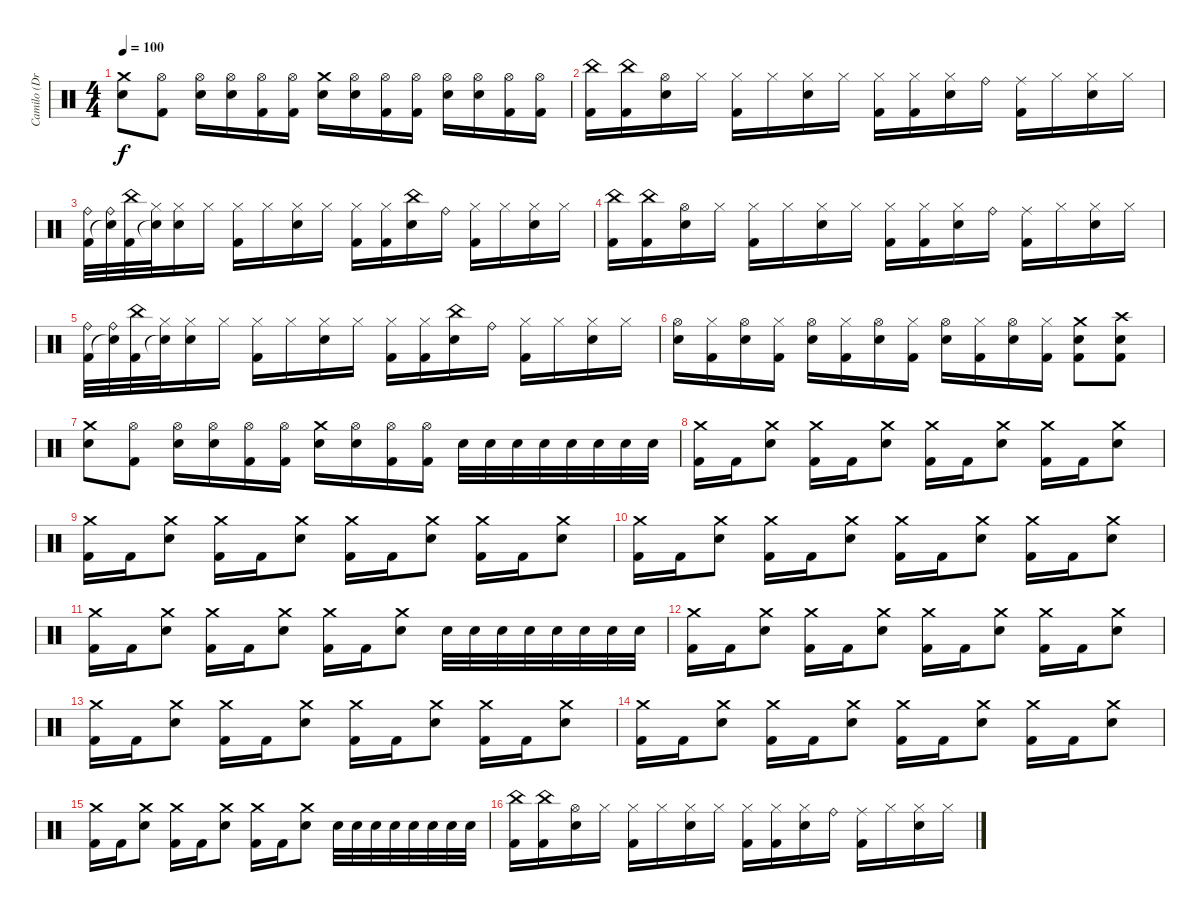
\track ("Camilo (Drums)" "Camilo (Dr") {instrument percussion}
\staff {score}
\articulation defaults
\ts (4 4)
\tempo 100
\clef neutral
\ks c
("Crash medium (hit)" "Electric Snare (hit)").8{dy f} ("Hi-Hat (open)" "Kick (hit) 2").8 ("Hi-Hat (open)" "Electric Snare (hit)").16 ("Hi-Hat (open)" "Electric Snare (hit)").16 ("Hi-Hat (open)" "Kick (hit) 2").16 ("Hi-Hat (open)" "Kick (hit) 2").16 ("Crash medium (hit)" "Electric Snare (hit)").16 ("Hi-Hat (open)" "Electric Snare (hit)").16 ("Hi-Hat (open)" "Kick (hit) 2").16 ("Hi-Hat (open)" "Kick (hit) 2").16 ("Hi-Hat (open)" "Electric Snare (hit)").16 ("Hi-Hat (open)" "Electric Snare (hit)").16 ("Hi-Hat (open)" "Kick (hit) 2").16 ("Hi-Hat (open)" "Kick (hit) 2").16 |
("China (hit)" "Kick (hit) 2").16 ("China (hit)" "Kick (hit) 2").16 ("Hi-Hat (open)" "Electric Snare (hit)").16 "Hi-Hat (closed)".16 ("Hi-Hat (closed)" "Kick (hit) 2").16 "Hi-Hat (closed)".16 ("Hi-Hat (closed)" "Electric Snare (hit)").16 "Hi-Hat (closed)".16 ("Hi-Hat (closed)" "Kick (hit) 2").16 ("Hi-Hat (closed)" "Kick (hit) 2").16 ("Hi-Hat (closed)" "Electric Snare (hit)").16 "Ride (bell)".16 ("Ride (middle)" "Kick (hit) 2").16 "Hi-Hat (closed)".16 ("Hi-Hat (closed)" "Electric Snare (hit)").16 "Hi-Hat (closed)".16 |
("Ride (bell)" "Kick (hit) 2").32 ("Ride (bell)" "Snare (hit)"{t}).32 ("China (hit)" "Kick (hit) 2").32 ("Hi-Hat (closed)" "Snare (hit)"{t}).32 ("Hi-Hat (closed)" "Electric Snare (hit)").16 "Hi-Hat (closed)".16 ("Hi-Hat (closed)" "Kick (hit) 2").16 "Hi-Hat (closed)".16 ("Hi-Hat (closed)" "Electric Snare (hit)").16 "Hi-Hat (closed)".16 ("Hi-Hat (closed)" "Kick (hit) 2").16 ("Hi-Hat (closed)" "Kick (hit) 2").16 ("China (hit)" "Electric Snare (hit)").16 "Ride (bell)".16 ("Hi-Hat (closed)" "Kick (hit) 2").16 "Hi-Hat (closed)".16 ("Hi-Hat (closed)" "Electric Snare (hit)").16 "Hi-Hat (closed)".16 |
("China (hit)" "Kick (hit) 2").16 ("China (hit)" "Kick (hit) 2").16 ("Hi-Hat (open)" "Electric Snare (hit)").16 "Hi-Hat (closed)".16 ("Hi-Hat (closed)" "Kick (hit) 2").16 "Hi-Hat (closed)".16 ("Hi-Hat (closed)" "Electric Snare (hit)").16 "Hi-Hat (closed)".16 ("Hi-Hat (closed)" "Kick (hit) 2").16 ("Hi-Hat (closed)" "Kick (hit) 2").16 ("Hi-Hat (closed)" "Electric Snare (hit)").16 "Ride (bell)".16 ("Ride (middle)" "Kick (hit) 2").16 "Hi-Hat (closed)".16 ("Hi-Hat (closed)" "Electric Snare (hit)").16 "Hi-Hat (closed)".16 |
("Ride (bell)" "Kick (hit) 2").32 ("Ride (bell)" "Snare (hit)"{t}).32 ("China (hit)" "Kick (hit) 2").32 ("Hi-Hat (closed)" "Snare (hit)"{t}).32 ("Hi-Hat (closed)" "Electric Snare (hit)").16 "Hi-Hat (closed)".16 ("Hi-Hat (closed)" "Kick (hit) 2").16 "Hi-Hat (closed)".16 ("Hi-Hat (closed)" "Electric Snare (hit)").16 "Hi-Hat (closed)".16 ("Hi-Hat (closed)" "Kick (hit) 2").16 ("Hi-Hat (closed)" "Kick (hit) 2").16 ("China (hit)" "Electric Snare (hit)").16 "Ride (bell)".16 ("Hi-Hat (closed)" "Kick (hit) 2").16 "Hi-Hat (closed)".16 ("Hi-Hat (closed)" "Electric Snare (hit)").16 "Hi-Hat (closed)".16 |
("Hi-Hat (open)" "Electric Snare (hit)").16 ("Hi-Hat (closed)" "Kick (hit) 2").16 ("Hi-Hat (open)" "Electric Snare (hit)").16 ("Hi-Hat (closed)" "Kick (hit) 2").16 ("Hi-Hat (open)" "Electric Snare (hit)").16 ("Hi-Hat (closed)" "Kick (hit) 2").16 ("Hi-Hat (open)" "Electric Snare (hit)").16 ("Hi-Hat (closed)" "Kick (hit) 2").16 ("Hi-Hat (open)" "Electric Snare (hit)").16 ("Hi-Hat (closed)" "Kick (hit) 2").16 ("Hi-Hat (open)" "Electric Snare (hit)").16 ("Hi-Hat (closed)" "Kick (hit) 2").16 ("Crash medium (hit)" "Electric Snare (hit)" "Kick (hit) 2").8 ("Crash high (hit)" "Electric Snare (hit)" "Kick (hit) 2").8 |
("Crash medium (hit)" "Electric Snare (hit)").8 ("Hi-Hat (open)" "Kick (hit) 2").8 ("Hi-Hat (open)" "Electric Snare (hit)").16 ("Hi-Hat (open)" "Electric Snare (hit)").16 ("Hi-Hat (open)" "Kick (hit) 2").16 ("Hi-Hat (open)" "Kick (hit) 2").16 ("Crash medium (hit)" "Electric Snare (hit)").16 ("Hi-Hat (open)" "Electric Snare (hit)").16 ("Hi-Hat (open)" "Kick (hit) 2").16 ("Hi-Hat (open)" "Kick (hit) 2").16 "Electric Snare (hit)".32 "Electric Snare (hit)".32 "Electric Snare (hit)".32 "Electric Snare (hit)".32 "Electric Snare (hit)".32 "Electric Snare (hit)".32 "Electric Snare (hit)".32 "Electric Snare (hit)".32 |
("Crash medium (hit)" "Kick (hit) 2").16 "Kick (hit) 2".16 ("Crash medium (hit)" "Electric Snare (hit)").8 ("Crash medium (hit)" "Kick (hit) 2").16 "Kick (hit) 2".16 ("Crash medium (hit)" "Electric Snare (hit)").8 ("Crash medium (hit)" "Kick (hit) 2").16 "Kick (hit) 2".16 ("Crash medium (hit)" "Electric Snare (hit)").8 ("Crash medium (hit)" "Kick (hit) 2").16 "Kick (hit) 2".16 ("Crash medium (hit)" "Electric Snare (hit)").8 |
("Crash medium (hit)" "Kick (hit) 2").16 "Kick (hit) 2".16 ("Crash medium (hit)" "Electric Snare (hit)").8 ("Crash medium (hit)" "Kick (hit) 2").16 "Kick (hit) 2".16 ("Crash medium (hit)" "Electric Snare (hit)").8 ("Crash medium (hit)" "Kick (hit) 2").16 "Kick (hit) 2".16 ("Crash medium (hit)" "Electric Snare (hit)").8 ("Crash medium (hit)" "Kick (hit) 2").16 "Kick (hit) 2".16 ("Crash medium (hit)" "Electric Snare (hit)").8 |
("Crash medium (hit)" "Kick (hit) 2").16 "Kick (hit) 2".16 ("Crash medium (hit)" "Electric Snare (hit)").8 ("Crash medium (hit)" "Kick (hit) 2").16 "Kick (hit) 2".16 ("Crash medium (hit)" "Electric Snare (hit)").8 ("Crash medium (hit)" "Kick (hit) 2").16 "Kick (hit) 2".16 ("Crash medium (hit)" "Electric Snare (hit)").8 ("Crash medium (hit)" "Kick (hit) 2").16 "Kick (hit) 2".16 ("Crash medium (hit)" "Electric Snare (hit)").8 |
("Crash medium (hit)" "Kick (hit) 2").16 "Kick (hit) 2".16 ("Crash medium (hit)" "Electric Snare (hit)").8 ("Crash medium (hit)" "Kick (hit) 2").16 "Kick (hit) 2".16 ("Crash medium (hit)" "Electric Snare (hit)").8 ("Crash medium (hit)" "Kick (hit) 2").16 "Kick (hit) 2".16 ("Crash medium (hit)" "Electric Snare (hit)").8 "Electric Snare (hit)".32 "Electric Snare (hit)".32 "Electric Snare (hit)".32 "Electric Snare (hit)".32 "Electric Snare (hit)".32 "Electric Snare (hit)".32 "Electric Snare (hit)".32 "Electric Snare (hit)".32 |
("Crash medium (hit)" "Kick (hit) 2").16 "Kick (hit) 2".16 ("Crash medium (hit)" "Electric Snare (hit)").8 ("Crash medium (hit)" "Kick (hit) 2").16 "Kick (hit) 2".16 ("Crash medium (hit)" "Electric Snare (hit)").8 ("Crash medium (hit)" "Kick (hit) 2").16 "Kick (hit) 2".16 ("Crash medium (hit)" "Electric Snare (hit)").8 ("Crash medium (hit)" "Kick (hit) 2").16 "Kick (hit) 2".16 ("Crash medium (hit)" "Electric Snare (hit)").8 |
("Crash medium (hit)" "Kick (hit) 2").16 "Kick (hit) 2".16 ("Crash medium (hit)" "Electric Snare (hit)").8 ("Crash medium (hit)" "Kick (hit) 2").16 "Kick (hit) 2".16 ("Crash medium (hit)" "Electric Snare (hit)").8 ("Crash medium (hit)" "Kick (hit) 2").16 "Kick (hit) 2".16 ("Crash medium (hit)" "Electric Snare (hit)").8 ("Crash medium (hit)" "Kick (hit) 2").16 "Kick (hit) 2".16 ("Crash medium (hit)" "Electric Snare (hit)").8 |
("Crash medium (hit)" "Kick (hit) 2").16 "Kick (hit) 2".16 ("Crash medium (hit)" "Electric Snare (hit)").8 ("Crash medium (hit)" "Kick (hit) 2").16 "Kick (hit) 2".16 ("Crash medium (hit)" "Electric Snare (hit)").8 ("Crash medium (hit)" "Kick (hit) 2").16 "Kick (hit) 2".16 ("Crash medium (hit)" "Electric Snare (hit)").8 ("Crash medium (hit)" "Kick (hit) 2").16 "Kick (hit) 2".16 ("Crash medium (hit)" "Electric Snare (hit)").8 |
("Crash medium (hit)" "Kick (hit) 2").16 "Kick (hit) 2".16 ("Crash medium (hit)" "Electric Snare (hit)").8 ("Crash medium (hit)" "Kick (hit) 2").16 "Kick (hit) 2".16 ("Crash medium (hit)" "Electric Snare (hit)").8 ("Crash medium (hit)" "Kick (hit) 2").16 "Kick (hit) 2".16 ("Crash medium (hit)" "Electric Snare (hit)").8 "Electric Snare (hit)".32 "Electric Snare (hit)".32 "Electric Snare (hit)".32 "Electric Snare (hit)".32 "Electric Snare (hit)".32 "Electric Snare (hit)".32 "Electric Snare (hit)".32 "Electric Snare (hit)".32 |
("China (hit)" "Kick (hit) 2").16 ("China (hit)" "Kick (hit) 2").16 ("Hi-Hat (open)" "Electric Snare (hit)").16 "Hi-Hat (closed)".16 ("Hi-Hat (closed)" "Kick (hit) 2").16 "Hi-Hat (closed)".16 ("Hi-Hat (closed)" "Electric Snare (hit)").16 "Hi-Hat (closed)".16 ("Hi-Hat (closed)" "Kick (hit) 2").16 ("Hi-Hat (closed)" "Kick (hit) 2").16 ("Hi-Hat (closed)" "Electric Snare (hit)").16 "Ride (bell)".16 ("Ride (middle)" "Kick (hit) 2").16 "Hi-Hat (closed)".16 ("Hi-Hat (closed)" "Electric Snare (hit)").16 "Hi-Hat (closed)".16
